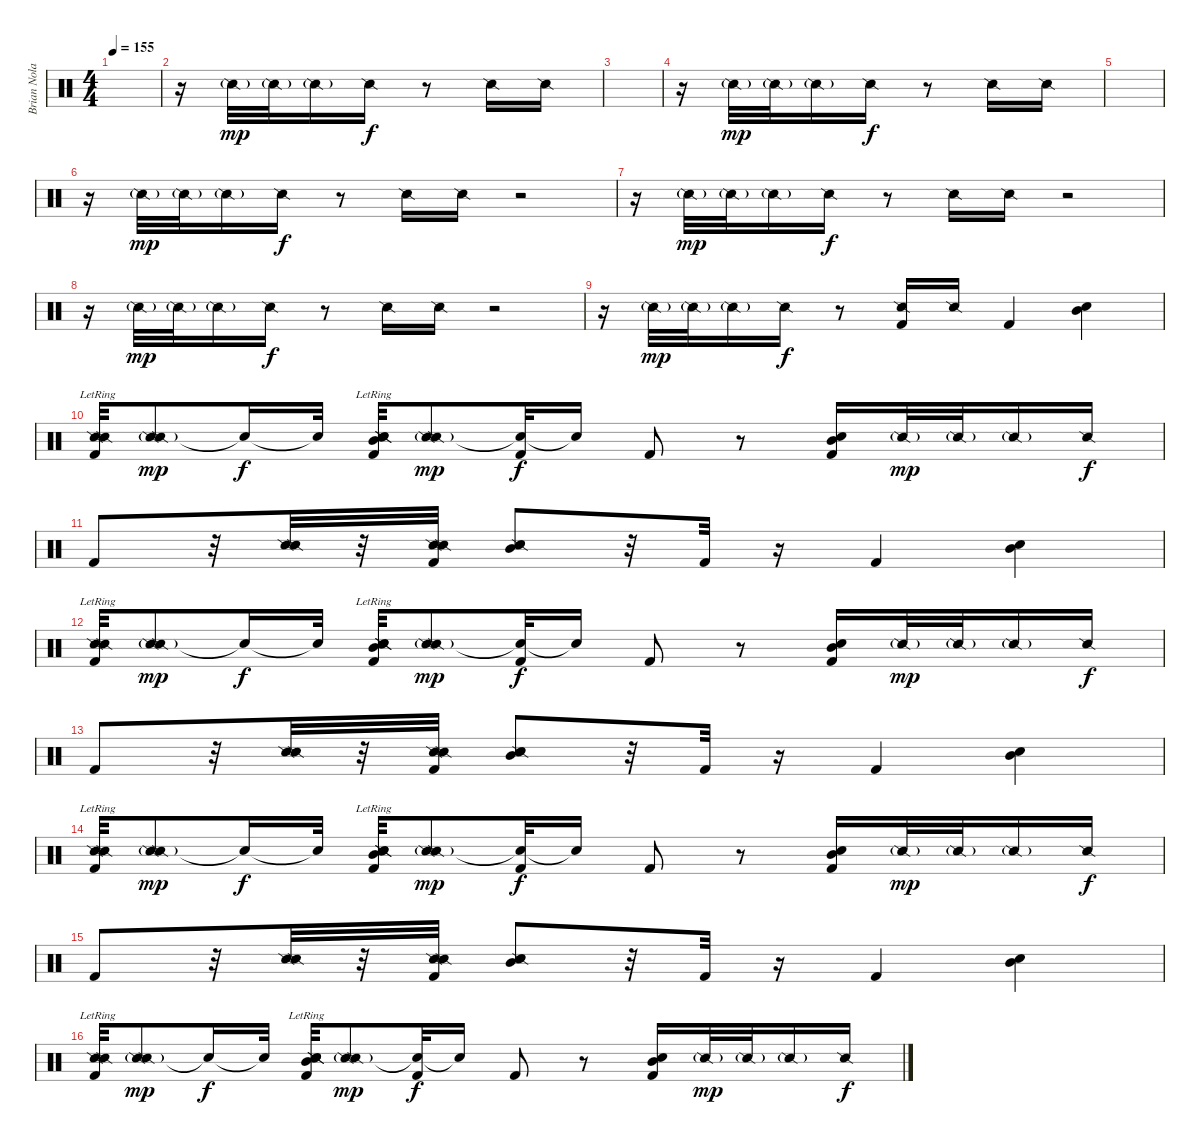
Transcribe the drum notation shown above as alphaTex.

\track ("Brian Nolan" "Brian Nola") {instrument percussion}
\staff {score}
\articulation defaults
\ts (4 4)
\tempo 155
\clef neutral
\ks c
|
r.16 "Snare (side stick) 2"{g}.32{dy mp} "Snare (side stick) 2"{g}.32 "Snare (side stick) 2"{g}.16 "Snare (side stick) 2".16{dy f} r.8 "Snare (side stick) 2".16 "Snare (side stick) 2".16 |
|
r.16 "Snare (side stick) 2"{g}.32{dy mp} "Snare (side stick) 2"{g}.32 "Snare (side stick) 2"{g}.16 "Snare (side stick) 2".16{dy f} r.8 "Snare (side stick) 2".16 "Snare (side stick) 2".16 |
|
r.16 "Snare (side stick) 2"{g}.32{dy mp} "Snare (side stick) 2"{g}.32 "Snare (side stick) 2"{g}.16 "Snare (side stick) 2".16{dy f} r.8 "Snare (side stick) 2".16 "Snare (side stick) 2".16 r.2 |
r.16 "Snare (side stick) 2"{g}.32{dy mp} "Snare (side stick) 2"{g}.32 "Snare (side stick) 2"{g}.16 "Snare (side stick) 2".16{dy f} r.8 "Snare (side stick) 2".16 "Snare (side stick) 2".16 r.2 |
r.16 "Snare (side stick) 2"{g}.32{dy mp} "Snare (side stick) 2"{g}.32 "Snare (side stick) 2"{g}.16 "Snare (side stick) 2".16{dy f} r.8 "Snare (side stick) 2".16 "Snare (side stick) 2".16 r.2 |
r.16 "Snare (side stick) 2"{g}.32{dy mp} "Snare (side stick) 2"{g}.32 "Snare (side stick) 2"{g}.16 "Snare (side stick) 2".16{dy f} r.8 ("Snare (side stick) 2" "Kick (hit) 2").16 "Snare (side stick) 2".16 "Kick (hit) 2".4 ("Snare (hit) 2" "Mid Tom (hit)").4 |
("Snare (side stick) 2"{lr} "Snare (side stick) 2" "Kick (hit) 2").32 ("Snare (side stick) 2"{g} "Snare (side stick) 2").8{dy mp} "Snare (hit)"{t}.16{dy f} "Snare (hit)"{t}.32 ("Snare (side stick) 2" "Snare (side stick) 2" "Snare (hit) 2"{lr} "Mid Tom (hit)" "Kick (hit) 2").32 ("Snare (side stick) 2"{g} "Snare (side stick) 2").8{dy mp} ("Snare (hit)"{t} "Kick (hit) 2").32{dy f} "Snare (hit)"{t}.16 "Kick (hit) 2".8 r.8 ("Snare (hit) 2" "Mid Tom (hit)" "Kick (hit) 2").16 "Snare (side stick) 2"{g}.32{dy mp} "Snare (side stick) 2"{g}.32 "Snare (side stick) 2"{g}.16 "Snare (side stick) 2".16{dy f} |
"Kick (hit) 2".8 r.32 ("Snare (side stick) 2" "Snare (side stick) 2").32 r.32 ("Snare (side stick) 2" "Snare (side stick) 2" "Kick (hit) 2").32 ("Snare (hit) 2" "Mid Tom (hit)" "Snare (side stick) 2").8 r.32 "Kick (hit) 2".32 r.16 "Kick (hit) 2".4 ("Snare (hit) 2" "Mid Tom (hit)").4 |
("Snare (side stick) 2"{lr} "Snare (side stick) 2" "Kick (hit) 2").32 ("Snare (side stick) 2"{g} "Snare (side stick) 2").8{dy mp} "Snare (hit)"{t}.16{dy f} "Snare (hit)"{t}.32 ("Snare (side stick) 2" "Snare (side stick) 2" "Snare (hit) 2"{lr} "Mid Tom (hit)" "Kick (hit) 2").32 ("Snare (side stick) 2"{g} "Snare (side stick) 2").8{dy mp} ("Snare (hit)"{t} "Kick (hit) 2").32{dy f} "Snare (hit)"{t}.16 "Kick (hit) 2".8 r.8 ("Snare (hit) 2" "Mid Tom (hit)" "Kick (hit) 2").16 "Snare (side stick) 2"{g}.32{dy mp} "Snare (side stick) 2"{g}.32 "Snare (side stick) 2"{g}.16 "Snare (side stick) 2".16{dy f} |
"Kick (hit) 2".8 r.32 ("Snare (side stick) 2" "Snare (side stick) 2").32 r.32 ("Snare (side stick) 2" "Snare (side stick) 2" "Kick (hit) 2").32 ("Snare (hit) 2" "Mid Tom (hit)" "Snare (side stick) 2").8 r.32 "Kick (hit) 2".32 r.16 "Kick (hit) 2".4 ("Snare (hit) 2" "Mid Tom (hit)").4 |
("Snare (side stick) 2"{lr} "Snare (side stick) 2" "Kick (hit) 2").32 ("Snare (side stick) 2"{g} "Snare (side stick) 2").8{dy mp} "Snare (hit)"{t}.16{dy f} "Snare (hit)"{t}.32 ("Snare (side stick) 2" "Snare (side stick) 2" "Snare (hit) 2"{lr} "Mid Tom (hit)" "Kick (hit) 2").32 ("Snare (side stick) 2"{g} "Snare (side stick) 2").8{dy mp} ("Snare (hit)"{t} "Kick (hit) 2").32{dy f} "Snare (hit)"{t}.16 "Kick (hit) 2".8 r.8 ("Snare (hit) 2" "Mid Tom (hit)" "Kick (hit) 2").16 "Snare (side stick) 2"{g}.32{dy mp} "Snare (side stick) 2"{g}.32 "Snare (side stick) 2"{g}.16 "Snare (side stick) 2".16{dy f} |
"Kick (hit) 2".8 r.32 ("Snare (side stick) 2" "Snare (side stick) 2").32 r.32 ("Snare (side stick) 2" "Snare (side stick) 2" "Kick (hit) 2").32 ("Snare (hit) 2" "Mid Tom (hit)" "Snare (side stick) 2").8 r.32 "Kick (hit) 2".32 r.16 "Kick (hit) 2".4 ("Snare (hit) 2" "Mid Tom (hit)").4 |
("Snare (side stick) 2"{lr} "Snare (side stick) 2" "Kick (hit) 2").32 ("Snare (side stick) 2"{g} "Snare (side stick) 2").8{dy mp} "Snare (hit)"{t}.16{dy f} "Snare (hit)"{t}.32 ("Snare (side stick) 2" "Snare (side stick) 2" "Snare (hit) 2"{lr} "Mid Tom (hit)" "Kick (hit) 2").32 ("Snare (side stick) 2"{g} "Snare (side stick) 2").8{dy mp} ("Snare (hit)"{t} "Kick (hit) 2").32{dy f} "Snare (hit)"{t}.16 "Kick (hit) 2".8 r.8 ("Snare (hit) 2" "Mid Tom (hit)" "Kick (hit) 2").16 "Snare (side stick) 2"{g}.32{dy mp} "Snare (side stick) 2"{g}.32 "Snare (side stick) 2"{g}.16 "Snare (side stick) 2".16{dy f}
